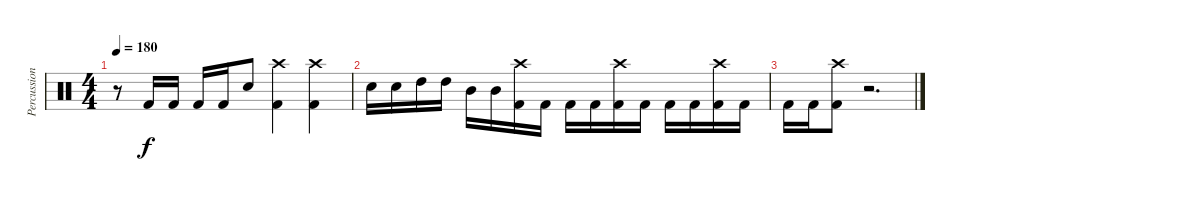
\track ("Percussion" "Percussion") {instrument percussion}
\staff {score}
\articulation defaults
\ts (4 4)
\tempo 180
\clef neutral
\ks c
r.8{dy f} "Kick (hit) 2".16 "Kick (hit) 2".16 "Kick (hit) 2".16 "Kick (hit) 2".16 "Electric Snare (hit)".8 ("Crash high (hit)" "Kick (hit) 2").4 ("Crash high (hit)" "Kick (hit) 2").4 |
"Electric Snare (hit)".16 "Electric Snare (hit)".16 "High Tom (hit)".16 "High Tom (hit)".16 "Mid Tom (hit)".16 "Mid Tom (hit)".16 ("Crash high (hit)" "Kick (hit) 2").16 "Kick (hit) 2".16 "Kick (hit) 2".16 "Kick (hit) 2".16 ("Crash high (hit)" "Kick (hit) 2").16 "Kick (hit) 2".16 "Kick (hit) 2".16 "Kick (hit) 2".16 ("Crash high (hit)" "Kick (hit) 2").16 "Kick (hit) 2".16 |
"Kick (hit) 2".16 "Kick (hit) 2".16 ("Crash high (hit)" "Kick (hit) 2").8 r.2{d}
